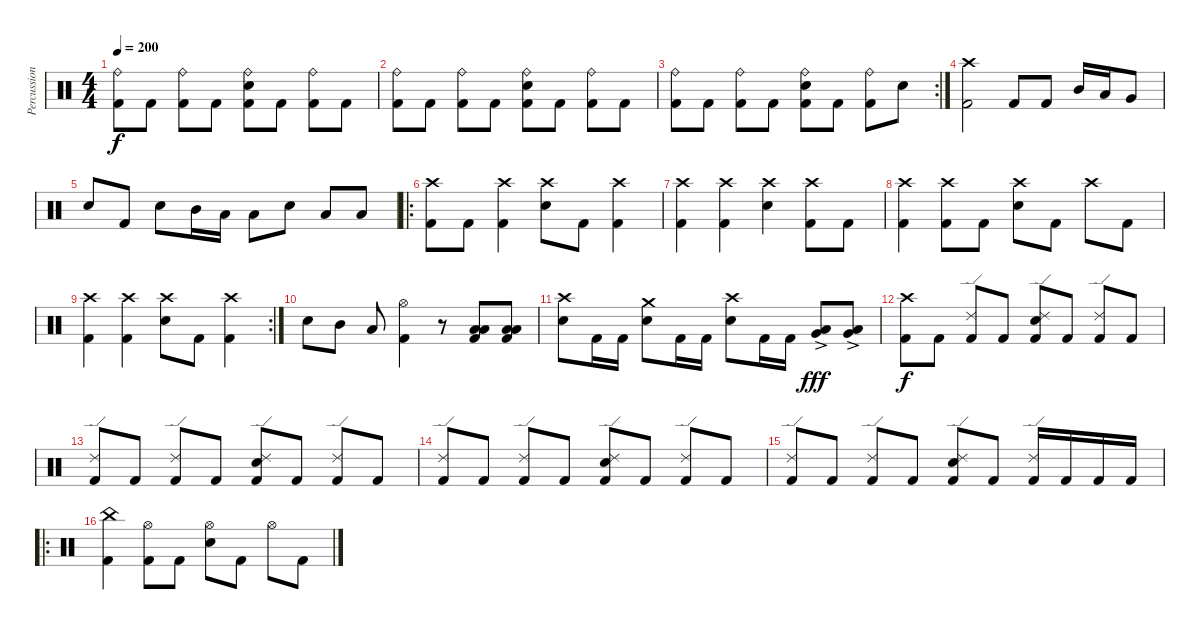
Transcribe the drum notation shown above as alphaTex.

\track ("Percussions" "Percussion") {instrument percussion}
\staff {score}
\articulation defaults
\ts (4 4)
\tempo 200
\clef neutral
\ks c
("Ride (bell)" "Kick (hit) 2").8{dy f} "Kick (hit) 2".8 ("Ride (bell)" "Kick (hit) 2").8 "Kick (hit) 2".8 ("Ride (bell)" "Snare (hit) 2" "Kick (hit) 2").8 "Kick (hit) 2".8 ("Ride (bell)" "Kick (hit) 2").8 "Kick (hit) 2".8 |
("Ride (bell)" "Kick (hit) 2").8 "Kick (hit) 2".8 ("Ride (bell)" "Kick (hit) 2").8 "Kick (hit) 2".8 ("Ride (bell)" "Snare (hit) 2" "Kick (hit) 2").8 "Kick (hit) 2".8 ("Ride (bell)" "Kick (hit) 2").8 "Kick (hit) 2".8 |
\rc 2
("Ride (bell)" "Kick (hit) 2").8 "Kick (hit) 2".8 ("Ride (bell)" "Kick (hit) 2").8 "Kick (hit) 2".8 ("Ride (bell)" "Snare (hit) 2" "Kick (hit) 2").8 "Kick (hit) 2".8 ("Ride (bell)" "Kick (hit) 2").8 "Snare (hit) 2".8 |
("Crash high (hit)" "Kick (hit) 2").2 "Kick (hit) 2".8 "Kick (hit) 2".8 "Mid Tom (hit)".16 "Low Tom (hit)".16 "Very Low Tom (hit)".8 |
"Snare (hit) 2".8 "Kick (hit) 2".8 "Snare (hit) 2".8 "Mid Tom (hit)".16 "Low Tom (hit)".16 "Low Floor Tom (hit)".8 "Snare (hit) 2".8 "Low Tom (hit)".8 "Low Floor Tom (hit)".8 |
\ro
("Crash high (hit)" "Kick (hit) 2").8 "Kick (hit) 2".8 ("Crash high (hit)" "Kick (hit) 2").4 ("Crash high (hit)" "Snare (hit) 2").8 "Kick (hit) 2".8 ("Crash high (hit)" "Kick (hit) 2").4 |
("Crash high (hit)" "Kick (hit) 2").4 ("Crash high (hit)" "Kick (hit) 2").4 ("Crash high (hit)" "Snare (hit) 2").4 ("Crash high (hit)" "Kick (hit) 2").8 "Kick (hit) 2".8 |
("Crash high (hit)" "Kick (hit) 2").4 ("Crash high (hit)" "Kick (hit) 2").8 "Kick (hit) 2".8 ("Crash high (hit)" "Snare (hit) 2").8 "Kick (hit) 2".8 "Crash high (hit)".8 "Kick (hit) 2".8 |
\rc 2
("Crash high (hit)" "Kick (hit) 2").4 ("Crash high (hit)" "Kick (hit) 2").4 ("Crash high (hit)" "Snare (hit) 2").8 "Kick (hit) 2".8 ("Crash high (hit)" "Kick (hit) 2").4 |
"Snare (hit) 2".8 "Mid Tom (hit)".8 "Low Tom (hit)".8 ("Hi-Hat (open)" "Kick (hit) 2").4 r.8 ("Low Floor Tom (hit)" "Low Floor Tom (hit)" "Kick (hit) 2").8 ("Low Floor Tom (hit)" "Low Floor Tom (hit)" "Kick (hit) 2").8 |
("Crash high (hit)" "Snare (hit) 2").8 "Kick (hit) 2".16 "Kick (hit) 2".16 ("Crash medium (hit)" "Snare (hit) 2").8 "Kick (hit) 2".16 "Kick (hit) 2".16 ("Crash high (hit)" "Snare (hit) 2").8 "Kick (hit) 2".16 "Kick (hit) 2".16 ("Low Tom (hit)"{ac} "Very Low Tom (hit)"{ac}).8{dy fff} ("Low Tom (hit)"{ac} "Very Low Tom (hit)"{ac}).8 |
("Crash high (hit)" "Kick (hit) 2").8{dy f} "Kick (hit) 2".8 ("Ride (edge) 2" "Kick (hit) 2").8 "Kick (hit) 2".8 ("Ride (edge) 2" "Snare (hit) 2" "Kick (hit) 2").8 "Kick (hit) 2".8 ("Ride (edge) 2" "Kick (hit) 2").8 "Kick (hit) 2".8 |
("Ride (edge) 2" "Kick (hit) 2").8 "Kick (hit) 2".8 ("Ride (edge) 2" "Kick (hit) 2").8 "Kick (hit) 2".8 ("Ride (edge) 2" "Snare (hit) 2" "Kick (hit) 2").8 "Kick (hit) 2".8 ("Ride (edge) 2" "Kick (hit) 2").8 "Kick (hit) 2".8 |
("Ride (edge) 2" "Kick (hit) 2").8 "Kick (hit) 2".8 ("Ride (edge) 2" "Kick (hit) 2").8 "Kick (hit) 2".8 ("Ride (edge) 2" "Snare (hit) 2" "Kick (hit) 2").8 "Kick (hit) 2".8 ("Ride (edge) 2" "Kick (hit) 2").8 "Kick (hit) 2".8 |
("Ride (edge) 2" "Kick (hit) 2").8 "Kick (hit) 2".8 ("Ride (edge) 2" "Kick (hit) 2").8 "Kick (hit) 2".8 ("Ride (edge) 2" "Snare (hit) 2" "Kick (hit) 2").8 "Kick (hit) 2".8 ("Ride (edge) 2" "Kick (hit) 2").16 "Kick (hit) 2".16 "Kick (hit) 2".16 "Kick (hit) 2".16 |
\ro
("China (hit)" "Kick (hit) 2").4 ("Hi-Hat (open)" "Kick (hit) 2").8 "Kick (hit) 2".8 ("Hi-Hat (open)" "Snare (hit) 2").8 "Kick (hit) 2".8 "Hi-Hat (open)".8 "Kick (hit) 2".8
